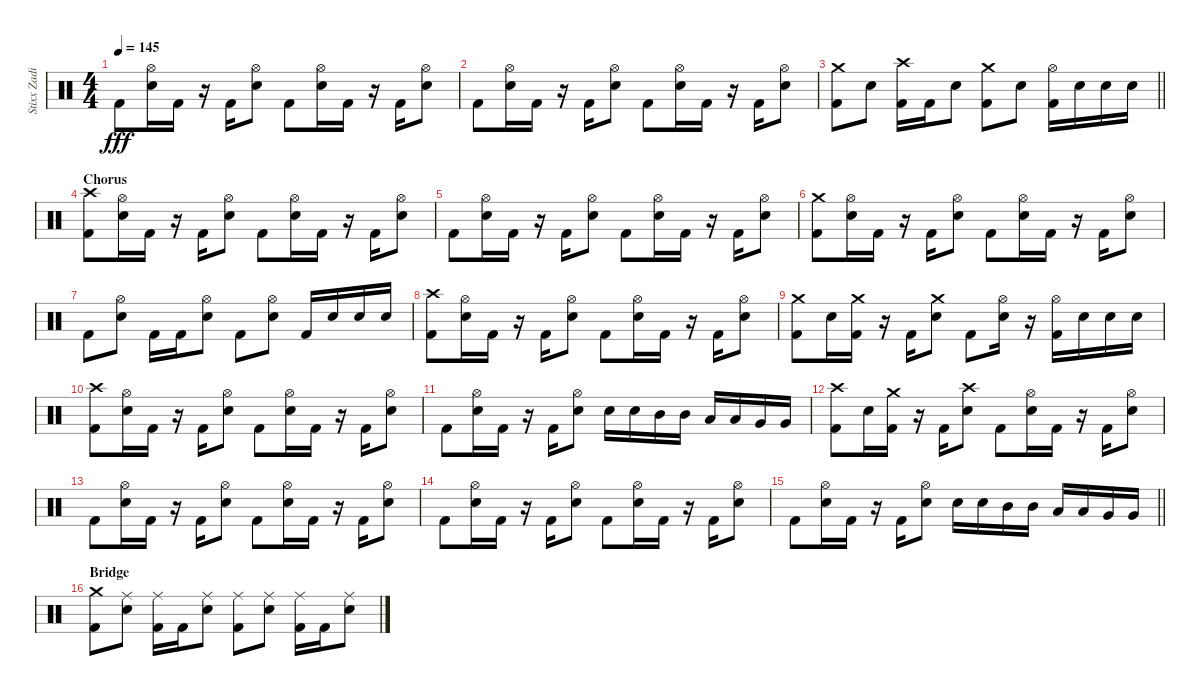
\track ("Stixx Zadina (Sticks it in ya)" "Stixx Zadi") {instrument percussion}
\staff {score}
\articulation defaults
\ts (4 4)
\tempo 145
\clef neutral
\ks c "Kick (hit) 2".8{dy fff}
("Hi-Hat (open)" "Electric Snare (hit)").16 "Kick (hit) 2".16 r.16 "Kick (hit) 2".16 ("Hi-Hat (open)" "Electric Snare (hit)").8 "Kick (hit) 2".8 ("Hi-Hat (open)" "Electric Snare (hit)").16 "Kick (hit) 2".16 r.16 "Kick (hit) 2".16 ("Hi-Hat (open)" "Electric Snare (hit)").8 |
"Kick (hit) 2".8 ("Hi-Hat (open)" "Electric Snare (hit)").16 "Kick (hit) 2".16 r.16 "Kick (hit) 2".16 ("Hi-Hat (open)" "Electric Snare (hit)").8 "Kick (hit) 2".8 ("Hi-Hat (open)" "Electric Snare (hit)").16 "Kick (hit) 2".16 r.16 "Kick (hit) 2".16 ("Hi-Hat (open)" "Electric Snare (hit)").8 |
\barLineRight lightlight
("Crash medium (hit)" "Kick (hit) 2").8 "Electric Snare (hit)".8 ("Crash high (hit)" "Kick (hit) 2").16 "Kick (hit) 2".16 "Electric Snare (hit)".8 ("Crash medium (hit)" "Kick (hit) 2").8 "Electric Snare (hit)".8 ("Hi-Hat (open)" "Kick (hit) 2").16 "Electric Snare (hit)".16 "Electric Snare (hit)".16 "Electric Snare (hit)".16 |
\section ("" "Chorus")
("Crash high (hit)" "Kick (hit) 2").8 ("Hi-Hat (open)" "Electric Snare (hit)").16 "Kick (hit) 2".16 r.16 "Kick (hit) 2".16 ("Hi-Hat (open)" "Electric Snare (hit)").8 "Kick (hit) 2".8 ("Hi-Hat (open)" "Electric Snare (hit)").16 "Kick (hit) 2".16 r.16 "Kick (hit) 2".16 ("Hi-Hat (open)" "Electric Snare (hit)").8 |
"Kick (hit) 2".8 ("Hi-Hat (open)" "Electric Snare (hit)").16 "Kick (hit) 2".16 r.16 "Kick (hit) 2".16 ("Hi-Hat (open)" "Electric Snare (hit)").8 "Kick (hit) 2".8 ("Hi-Hat (open)" "Electric Snare (hit)").16 "Kick (hit) 2".16 r.16 "Kick (hit) 2".16 ("Hi-Hat (open)" "Electric Snare (hit)").8 |
("Crash medium (hit)" "Kick (hit) 2").8 ("Hi-Hat (open)" "Electric Snare (hit)").16 "Kick (hit) 2".16 r.16 "Kick (hit) 2".16 ("Hi-Hat (open)" "Electric Snare (hit)").8 "Kick (hit) 2".8 ("Hi-Hat (open)" "Electric Snare (hit)").16 "Kick (hit) 2".16 r.16 "Kick (hit) 2".16 ("Hi-Hat (open)" "Electric Snare (hit)").8 |
"Kick (hit) 2".8 ("Hi-Hat (open)" "Electric Snare (hit)").8 "Kick (hit) 2".16 "Kick (hit) 2".16 ("Hi-Hat (open)" "Electric Snare (hit)").8 "Kick (hit) 2".8 ("Hi-Hat (open)" "Electric Snare (hit)").8 "Kick (hit) 2".16 "Electric Snare (hit)".16 "Electric Snare (hit)".16 "Electric Snare (hit)".16 |
("Crash high (hit)" "Kick (hit) 2").8 ("Hi-Hat (open)" "Electric Snare (hit)").16 "Kick (hit) 2".16 r.16 "Kick (hit) 2".16 ("Hi-Hat (open)" "Electric Snare (hit)").8 "Kick (hit) 2".8 ("Hi-Hat (open)" "Electric Snare (hit)").16 "Kick (hit) 2".16 r.16 "Kick (hit) 2".16 ("Hi-Hat (open)" "Electric Snare (hit)").8 |
("Crash medium (hit)" "Kick (hit) 2").8 "Electric Snare (hit)".16 ("Crash medium (hit)" "Kick (hit) 2").16 r.16 "Kick (hit) 2".16 ("Crash medium (hit)" "Electric Snare (hit)").8 "Kick (hit) 2".8 ("Hi-Hat (open)" "Electric Snare (hit)").16 r.16 ("Hi-Hat (open)" "Kick (hit) 2").16 "Electric Snare (hit)".16 "Electric Snare (hit)".16 "Electric Snare (hit)".16 |
("Crash high (hit)" "Kick (hit) 2").8 ("Hi-Hat (open)" "Electric Snare (hit)").16 "Kick (hit) 2".16 r.16 "Kick (hit) 2".16 ("Hi-Hat (open)" "Electric Snare (hit)").8 "Kick (hit) 2".8 ("Hi-Hat (open)" "Electric Snare (hit)").16 "Kick (hit) 2".16 r.16 "Kick (hit) 2".16 ("Hi-Hat (open)" "Electric Snare (hit)").8 |
"Kick (hit) 2".8 ("Hi-Hat (open)" "Electric Snare (hit)").16 "Kick (hit) 2".16 r.16 "Kick (hit) 2".16 ("Hi-Hat (open)" "Electric Snare (hit)").8 "Electric Snare (hit)".16 "Electric Snare (hit)".16 "Mid Tom (hit)".16 "Mid Tom (hit)".16 "Low Tom (hit)".16 "Low Tom (hit)".16 "Very Low Tom (hit)".16 "Very Low Tom (hit)".16 |
("Crash high (hit)" "Kick (hit) 2").8 "Electric Snare (hit)".16 ("Crash medium (hit)" "Kick (hit) 2").16 r.16 "Kick (hit) 2".16 ("Crash high (hit)" "Electric Snare (hit)").8 "Kick (hit) 2".8 ("Hi-Hat (open)" "Electric Snare (hit)").16 "Kick (hit) 2".16 r.16 "Kick (hit) 2".16 ("Hi-Hat (open)" "Electric Snare (hit)").8 |
"Kick (hit) 2".8 ("Hi-Hat (open)" "Electric Snare (hit)").16 "Kick (hit) 2".16 r.16 "Kick (hit) 2".16 ("Hi-Hat (open)" "Electric Snare (hit)").8 "Kick (hit) 2".8 ("Hi-Hat (open)" "Electric Snare (hit)").16 "Kick (hit) 2".16 r.16 "Kick (hit) 2".16 ("Hi-Hat (open)" "Electric Snare (hit)").8 |
"Kick (hit) 2".8 ("Hi-Hat (open)" "Electric Snare (hit)").16 "Kick (hit) 2".16 r.16 "Kick (hit) 2".16 ("Hi-Hat (open)" "Electric Snare (hit)").8 "Kick (hit) 2".8 ("Hi-Hat (open)" "Electric Snare (hit)").16 "Kick (hit) 2".16 r.16 "Kick (hit) 2".16 ("Hi-Hat (open)" "Electric Snare (hit)").8 |
\barLineRight lightlight "Kick (hit) 2".8
("Hi-Hat (open)" "Electric Snare (hit)").16 "Kick (hit) 2".16 r.16 "Kick (hit) 2".16 ("Hi-Hat (open)" "Electric Snare (hit)").8 "Electric Snare (hit)".16 "Electric Snare (hit)".16 "Mid Tom (hit)".16 "Mid Tom (hit)".16 "Low Tom (hit)".16 "Low Tom (hit)".16 "Very Low Tom (hit)".16 "Very Low Tom (hit)".16 |
\section ("" "Bridge")
("Crash medium (hit)" "Kick (hit) 2").8 ("Ride (middle)" "Electric Snare (hit)").8 ("Ride (middle)" "Kick (hit) 2").16 "Kick (hit) 2".16 ("Ride (middle)" "Electric Snare (hit)").8 ("Ride (middle)" "Kick (hit) 2").8 ("Ride (middle)" "Electric Snare (hit)").8 ("Ride (middle)" "Kick (hit) 2").16 "Kick (hit) 2".16 ("Ride (middle)" "Electric Snare (hit)").8
